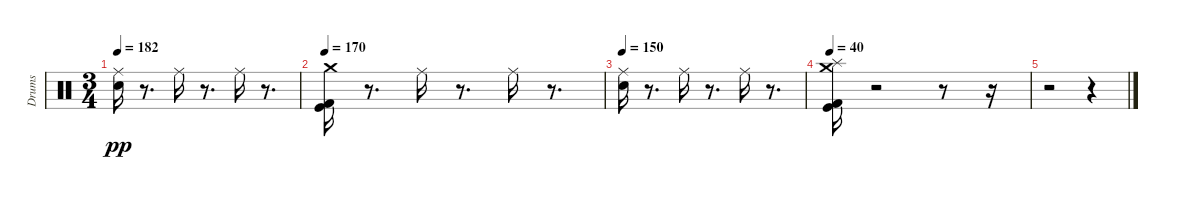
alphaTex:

\track ("Drums" "Drums") {instrument percussion}
\staff {score}
\articulation defaults
\ts (3 4)
\tempo 182
\clef neutral
\ks c
("Ride (middle)" "Snare (hit) 2").16{dy pp} r.8{d} "Ride (middle)".16 r.8{d} "Ride (middle)".16 r.8{d} |
\tempo 170
("Crash medium (hit)" "Kick (hit) 2" "Kick (hit)").16 r.8{d} "Ride (middle)".16 r.8{d} "Ride (middle)".16 r.8{d} |
\tempo 150
("Ride (middle)" "Snare (hit) 2").16 r.8{d} "Ride (middle)".16 r.8{d} "Ride (middle)".16 r.8{d} |
\tempo 40
("Splash (hit)" "Crash medium (hit)" "Kick (hit) 2" "Kick (hit)").16 r.2 r.8 r.16 |
r.2 r.4
